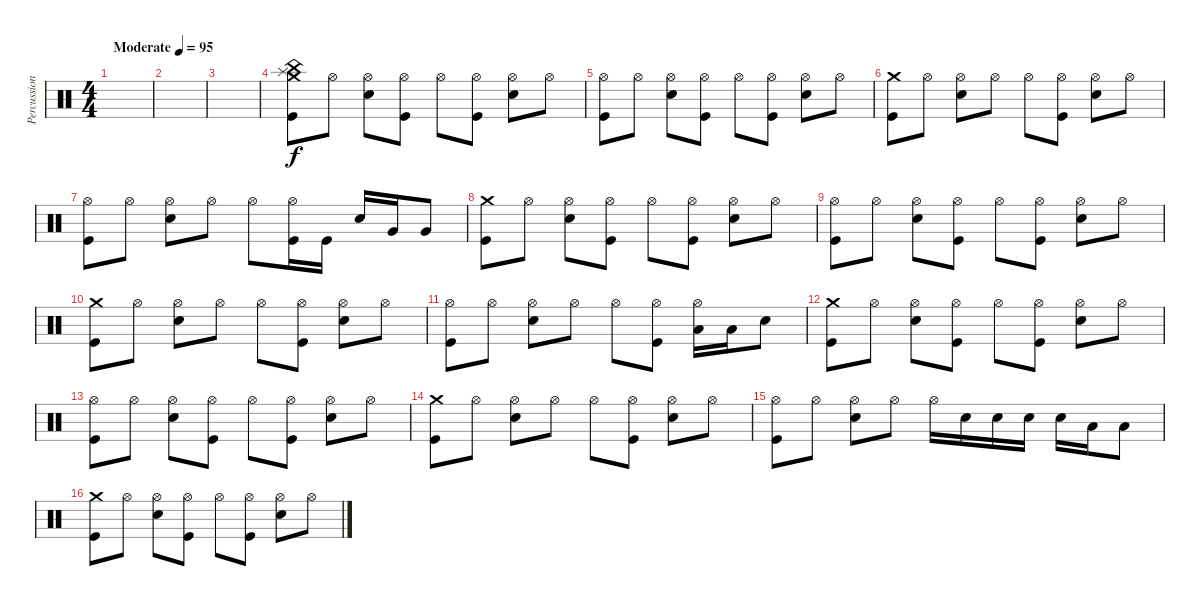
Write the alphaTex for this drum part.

\track ("Percussion" "Percussion") {instrument percussion}
\staff {score}
\articulation defaults
\ts (4 4)
\tempo (95 "Moderate")
\clef neutral
\ks c
|
|
|
("Kick (hit)" "Crash medium (hit)" "Splash (hit)" "China (hit)").8 "Hi-Hat (open)".8 ("Hi-Hat (open)" "Electric Snare (hit)").8 ("Hi-Hat (open)" "Kick (hit)").8 "Hi-Hat (open)".8 ("Hi-Hat (open)" "Kick (hit)").8 ("Hi-Hat (open)" "Electric Snare (hit)").8 "Hi-Hat (open)".8 |
("Hi-Hat (open)" "Kick (hit)").8 "Hi-Hat (open)".8 ("Hi-Hat (open)" "Electric Snare (hit)").8 ("Hi-Hat (open)" "Kick (hit)").8 "Hi-Hat (open)".8 ("Hi-Hat (open)" "Kick (hit)").8 ("Hi-Hat (open)" "Electric Snare (hit)").8 "Hi-Hat (open)".8 |
("Kick (hit)" "Crash medium (hit)").8 "Hi-Hat (open)".8 ("Hi-Hat (open)" "Electric Snare (hit)").8 "Hi-Hat (open)".8 "Hi-Hat (open)".8 ("Hi-Hat (open)" "Kick (hit)").8 ("Hi-Hat (open)" "Electric Snare (hit)").8 "Hi-Hat (open)".8 |
("Hi-Hat (open)" "Kick (hit)").8 "Hi-Hat (open)".8 ("Hi-Hat (open)" "Electric Snare (hit)").8 "Hi-Hat (open)".8 "Hi-Hat (open)".8 ("Hi-Hat (open)" "Kick (hit)").16 "Kick (hit)".16 "Electric Snare (hit)".16 "Very Low Tom (hit)".16 "Very Low Tom (hit)".8 |
("Kick (hit)" "Crash medium (hit)").8 "Hi-Hat (open)".8 ("Hi-Hat (open)" "Electric Snare (hit)").8 ("Hi-Hat (open)" "Kick (hit)").8 "Hi-Hat (open)".8 ("Hi-Hat (open)" "Kick (hit)").8 ("Hi-Hat (open)" "Electric Snare (hit)").8 "Hi-Hat (open)".8 |
("Hi-Hat (open)" "Kick (hit)").8 "Hi-Hat (open)".8 ("Hi-Hat (open)" "Electric Snare (hit)").8 ("Hi-Hat (open)" "Kick (hit)").8 "Hi-Hat (open)".8 ("Hi-Hat (open)" "Kick (hit)").8 ("Hi-Hat (open)" "Electric Snare (hit)").8 "Hi-Hat (open)".8 |
("Kick (hit)" "Crash medium (hit)").8 "Hi-Hat (open)".8 ("Hi-Hat (open)" "Electric Snare (hit)").8 "Hi-Hat (open)".8 "Hi-Hat (open)".8 ("Hi-Hat (open)" "Kick (hit)").8 ("Hi-Hat (open)" "Electric Snare (hit)").8 "Hi-Hat (open)".8 |
("Hi-Hat (open)" "Kick (hit)").8 "Hi-Hat (open)".8 ("Hi-Hat (open)" "Electric Snare (hit)").8 "Hi-Hat (open)".8 "Hi-Hat (open)".8 ("Hi-Hat (open)" "Kick (hit)").8 ("Hi-Hat (open)" "Low Floor Tom (hit)").16 "Low Floor Tom (hit)".16 "Electric Snare (hit)".8 |
("Kick (hit)" "Crash medium (hit)").8 "Hi-Hat (open)".8 ("Hi-Hat (open)" "Electric Snare (hit)").8 ("Hi-Hat (open)" "Kick (hit)").8 "Hi-Hat (open)".8 ("Hi-Hat (open)" "Kick (hit)").8 ("Hi-Hat (open)" "Electric Snare (hit)").8 "Hi-Hat (open)".8 |
("Hi-Hat (open)" "Kick (hit)").8 "Hi-Hat (open)".8 ("Hi-Hat (open)" "Electric Snare (hit)").8 ("Hi-Hat (open)" "Kick (hit)").8 "Hi-Hat (open)".8 ("Hi-Hat (open)" "Kick (hit)").8 ("Hi-Hat (open)" "Electric Snare (hit)").8 "Hi-Hat (open)".8 |
("Kick (hit)" "Crash medium (hit)").8 "Hi-Hat (open)".8 ("Hi-Hat (open)" "Electric Snare (hit)").8 "Hi-Hat (open)".8 "Hi-Hat (open)".8 ("Hi-Hat (open)" "Kick (hit)").8 ("Hi-Hat (open)" "Electric Snare (hit)").8 "Hi-Hat (open)".8 |
("Hi-Hat (open)" "Kick (hit)").8 "Hi-Hat (open)".8 ("Hi-Hat (open)" "Electric Snare (hit)").8 "Hi-Hat (open)".8 "Hi-Hat (open)".16 "Electric Snare (hit)".16 "Electric Snare (hit)".16 "Electric Snare (hit)".16 "Electric Snare (hit)".16 "Low Tom (hit)".16 "Low Tom (hit)".8 |
("Kick (hit)" "Crash medium (hit)").8 "Hi-Hat (open)".8 ("Hi-Hat (open)" "Electric Snare (hit)").8 ("Hi-Hat (open)" "Kick (hit)").8 "Hi-Hat (open)".8 ("Hi-Hat (open)" "Kick (hit)").8 ("Hi-Hat (open)" "Electric Snare (hit)").8 "Hi-Hat (open)".8
